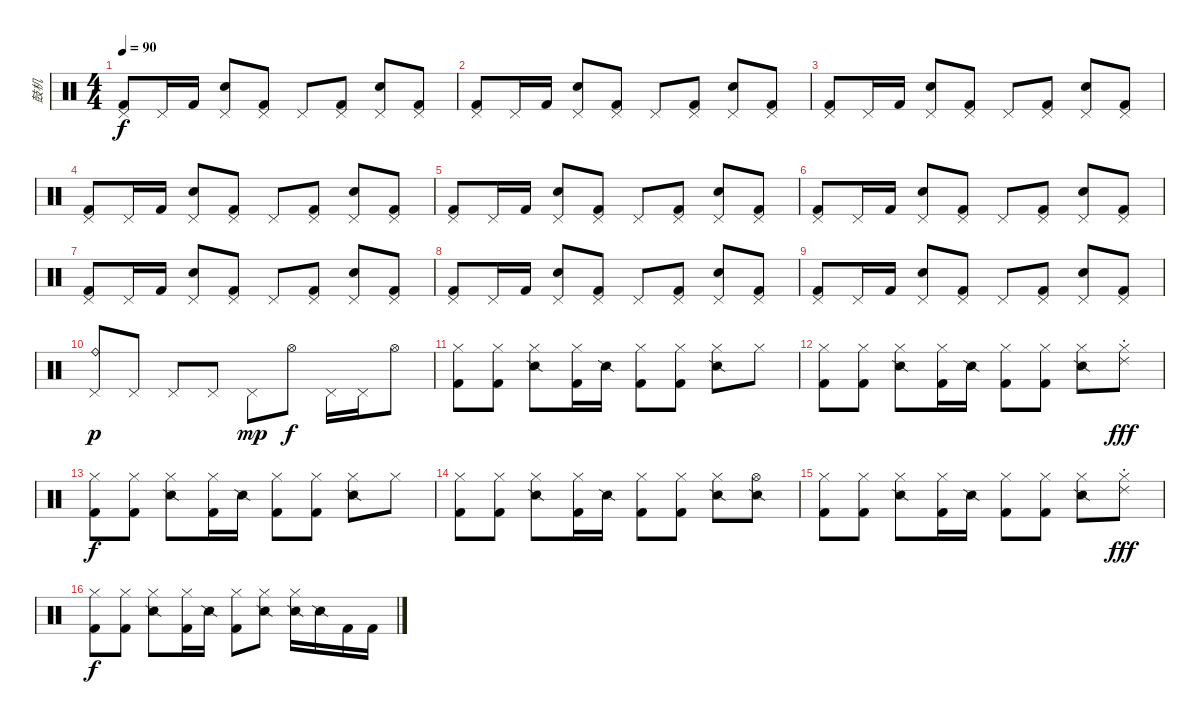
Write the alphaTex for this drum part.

\track ("鼓机" "鼓机") {instrument percussion}
\staff {score}
\articulation defaults
\ts (4 4)
\tempo 90
\clef neutral
\ks c
("Pedal Hi-Hat (hit)" "Kick (hit) 2").8{dy f} "Pedal Hi-Hat (hit)".16 "Kick (hit) 2".16 ("Pedal Hi-Hat (hit)" "Snare (hit) 2").8 ("Pedal Hi-Hat (hit)" "Kick (hit) 2").8 "Pedal Hi-Hat (hit)".8 ("Pedal Hi-Hat (hit)" "Kick (hit) 2").8 ("Pedal Hi-Hat (hit)" "Snare (hit) 2").8 ("Pedal Hi-Hat (hit)" "Kick (hit) 2").8 |
("Pedal Hi-Hat (hit)" "Kick (hit) 2").8 "Pedal Hi-Hat (hit)".16 "Kick (hit) 2".16 ("Pedal Hi-Hat (hit)" "Snare (hit) 2").8 ("Pedal Hi-Hat (hit)" "Kick (hit) 2").8 "Pedal Hi-Hat (hit)".8 ("Pedal Hi-Hat (hit)" "Kick (hit) 2").8 ("Pedal Hi-Hat (hit)" "Snare (hit) 2").8 ("Pedal Hi-Hat (hit)" "Kick (hit) 2").8 |
("Pedal Hi-Hat (hit)" "Kick (hit) 2").8 "Pedal Hi-Hat (hit)".16 "Kick (hit) 2".16 ("Pedal Hi-Hat (hit)" "Snare (hit) 2").8 ("Pedal Hi-Hat (hit)" "Kick (hit) 2").8 "Pedal Hi-Hat (hit)".8 ("Pedal Hi-Hat (hit)" "Kick (hit) 2").8 ("Pedal Hi-Hat (hit)" "Snare (hit) 2").8 ("Pedal Hi-Hat (hit)" "Kick (hit) 2").8 |
("Pedal Hi-Hat (hit)" "Kick (hit) 2").8 "Pedal Hi-Hat (hit)".16 "Kick (hit) 2".16 ("Pedal Hi-Hat (hit)" "Snare (hit) 2").8 ("Pedal Hi-Hat (hit)" "Kick (hit) 2").8 "Pedal Hi-Hat (hit)".8 ("Pedal Hi-Hat (hit)" "Kick (hit) 2").8 ("Pedal Hi-Hat (hit)" "Snare (hit) 2").8 ("Pedal Hi-Hat (hit)" "Kick (hit) 2").8 |
("Pedal Hi-Hat (hit)" "Kick (hit) 2").8 "Pedal Hi-Hat (hit)".16 "Kick (hit) 2".16 ("Pedal Hi-Hat (hit)" "Snare (hit) 2").8 ("Pedal Hi-Hat (hit)" "Kick (hit) 2").8 "Pedal Hi-Hat (hit)".8 ("Pedal Hi-Hat (hit)" "Kick (hit) 2").8 ("Pedal Hi-Hat (hit)" "Snare (hit) 2").8 ("Pedal Hi-Hat (hit)" "Kick (hit) 2").8 |
("Pedal Hi-Hat (hit)" "Kick (hit) 2").8 "Pedal Hi-Hat (hit)".16 "Kick (hit) 2".16 ("Pedal Hi-Hat (hit)" "Snare (hit) 2").8 ("Pedal Hi-Hat (hit)" "Kick (hit) 2").8 "Pedal Hi-Hat (hit)".8 ("Pedal Hi-Hat (hit)" "Kick (hit) 2").8 ("Pedal Hi-Hat (hit)" "Snare (hit) 2").8 ("Pedal Hi-Hat (hit)" "Kick (hit) 2").8 |
("Pedal Hi-Hat (hit)" "Kick (hit) 2").8 "Pedal Hi-Hat (hit)".16 "Kick (hit) 2".16 ("Pedal Hi-Hat (hit)" "Snare (hit) 2").8 ("Pedal Hi-Hat (hit)" "Kick (hit) 2").8 "Pedal Hi-Hat (hit)".8 ("Pedal Hi-Hat (hit)" "Kick (hit) 2").8 ("Pedal Hi-Hat (hit)" "Snare (hit) 2").8 ("Pedal Hi-Hat (hit)" "Kick (hit) 2").8 |
("Pedal Hi-Hat (hit)" "Kick (hit) 2").8 "Pedal Hi-Hat (hit)".16 "Kick (hit) 2".16 ("Pedal Hi-Hat (hit)" "Snare (hit) 2").8 ("Pedal Hi-Hat (hit)" "Kick (hit) 2").8 "Pedal Hi-Hat (hit)".8 ("Pedal Hi-Hat (hit)" "Kick (hit) 2").8 ("Pedal Hi-Hat (hit)" "Snare (hit) 2").8 ("Pedal Hi-Hat (hit)" "Kick (hit) 2").8 |
("Pedal Hi-Hat (hit)" "Kick (hit) 2").8 "Pedal Hi-Hat (hit)".16 "Kick (hit) 2".16 ("Pedal Hi-Hat (hit)" "Snare (hit) 2").8 ("Pedal Hi-Hat (hit)" "Kick (hit) 2").8 "Pedal Hi-Hat (hit)".8 ("Pedal Hi-Hat (hit)" "Kick (hit) 2").8 ("Pedal Hi-Hat (hit)" "Snare (hit) 2").8 ("Pedal Hi-Hat (hit)" "Kick (hit) 2").8 |
("Ride (bell)" "Pedal Hi-Hat (hit)").8{dy p} "Pedal Hi-Hat (hit)".8 "Pedal Hi-Hat (hit)".8 "Pedal Hi-Hat (hit)".8 "Pedal Hi-Hat (hit)".8{dy mp} "Hi-Hat (open)".8{dy f} "Pedal Hi-Hat (hit)".16 "Pedal Hi-Hat (hit)".16 "Hi-Hat (open)".8 |
("Hi-Hat (closed)" "Kick (hit) 2").8 ("Hi-Hat (closed)" "Kick (hit) 2").8 ("Hi-Hat (closed)" "Snare (side stick) 2").8 ("Hi-Hat (closed)" "Kick (hit) 2").16 "Snare (side stick) 2".16 ("Hi-Hat (closed)" "Kick (hit) 2").8 ("Hi-Hat (closed)" "Kick (hit) 2").8 ("Hi-Hat (closed)" "Snare (side stick) 2").8 "Hi-Hat (closed)".8 |
("Hi-Hat (closed)" "Kick (hit) 2").8 ("Hi-Hat (closed)" "Kick (hit) 2").8 ("Hi-Hat (closed)" "Snare (side stick) 2").8 ("Hi-Hat (closed)" "Kick (hit) 2").16 "Snare (side stick) 2".16 ("Hi-Hat (closed)" "Kick (hit) 2").8 ("Hi-Hat (closed)" "Kick (hit) 2").8 ("Hi-Hat (closed)" "Snare (side stick) 2").8 ("Hi-Hat (closed)" "Ride (choke) 2").8{dy fff} |
("Hi-Hat (closed)" "Kick (hit) 2").8{dy f} ("Hi-Hat (closed)" "Kick (hit) 2").8 ("Hi-Hat (closed)" "Snare (side stick) 2").8 ("Hi-Hat (closed)" "Kick (hit) 2").16 "Snare (side stick) 2".16 ("Hi-Hat (closed)" "Kick (hit) 2").8 ("Hi-Hat (closed)" "Kick (hit) 2").8 ("Hi-Hat (closed)" "Snare (side stick) 2").8 "Hi-Hat (closed)".8 |
("Hi-Hat (closed)" "Kick (hit) 2").8 ("Hi-Hat (closed)" "Kick (hit) 2").8 ("Hi-Hat (closed)" "Snare (side stick) 2").8 ("Hi-Hat (closed)" "Kick (hit) 2").16 "Snare (side stick) 2".16 ("Hi-Hat (closed)" "Kick (hit) 2").8 ("Hi-Hat (closed)" "Kick (hit) 2").8 ("Hi-Hat (closed)" "Snare (side stick) 2").8 ("Hi-Hat (open)" "Snare (side stick) 2").8 |
("Hi-Hat (closed)" "Kick (hit) 2").8 ("Hi-Hat (closed)" "Kick (hit) 2").8 ("Hi-Hat (closed)" "Snare (side stick) 2").8 ("Hi-Hat (closed)" "Kick (hit) 2").16 "Snare (side stick) 2".16 ("Hi-Hat (closed)" "Kick (hit) 2").8 ("Hi-Hat (closed)" "Kick (hit) 2").8 ("Hi-Hat (closed)" "Snare (side stick) 2").8 ("Hi-Hat (closed)" "Ride (choke) 2").8{dy fff} |
("Hi-Hat (closed)" "Kick (hit) 2").8{dy f} ("Hi-Hat (closed)" "Kick (hit) 2").8 ("Hi-Hat (closed)" "Snare (side stick) 2").8 ("Hi-Hat (closed)" "Kick (hit) 2").16 "Snare (side stick) 2".16 ("Hi-Hat (closed)" "Kick (hit) 2").8 ("Hi-Hat (closed)" "Snare (side stick) 2").8 ("Hi-Hat (closed)" "Snare (side stick) 2").16 "Snare (side stick) 2".16 "Kick (hit) 2".16 "Kick (hit) 2".16
